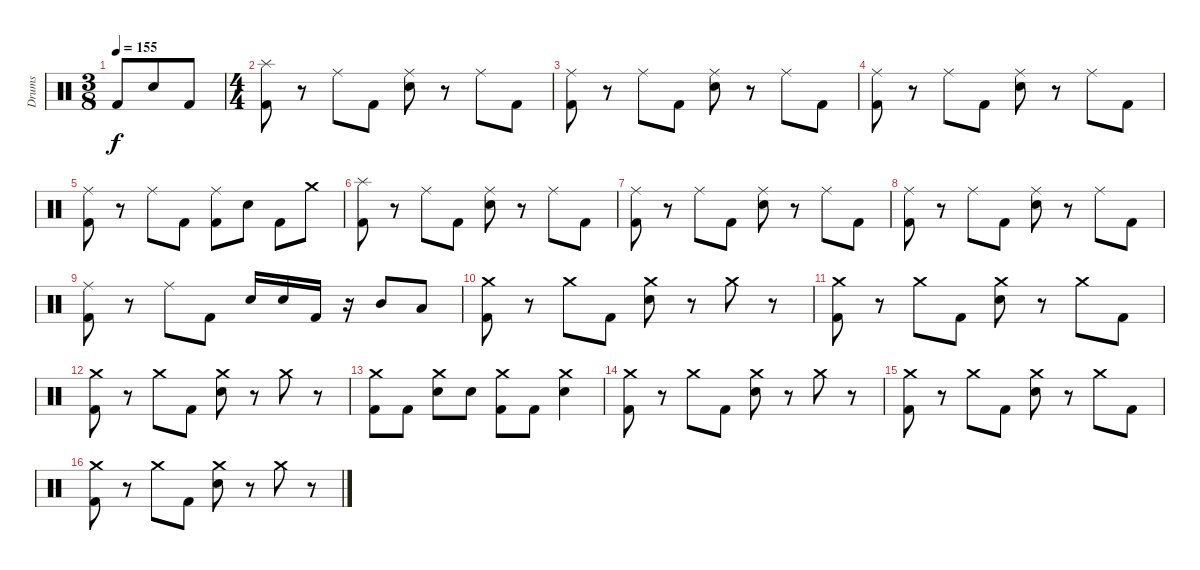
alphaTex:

\track ("Drums" "Drums") {instrument percussion}
\staff {score}
\articulation defaults
\ts (3 8)
\tempo 155
\clef neutral
\ks c "Kick (hit) 2".8{dy f} "Snare (hit) 2".8 "Kick (hit) 2".8
|
\ts (4 4)
("Splash (hit)" "Kick (hit) 2").8 r.8 "Ride (middle)".8 "Kick (hit) 2".8 ("Snare (hit) 2" "Ride (middle)").8 r.8 "Ride (middle)".8 "Kick (hit) 2".8 |
("Ride (middle)" "Kick (hit) 2").8 r.8 "Ride (middle)".8 "Kick (hit) 2".8 ("Snare (hit) 2" "Ride (middle)").8 r.8 "Ride (middle)".8 "Kick (hit) 2".8 |
("Ride (middle)" "Kick (hit) 2").8 r.8 "Ride (middle)".8 "Kick (hit) 2".8 ("Snare (hit) 2" "Ride (middle)").8 r.8 "Ride (middle)".8 "Kick (hit) 2".8 |
("Ride (middle)" "Kick (hit) 2").8 r.8 "Ride (middle)".8 "Kick (hit) 2".8 ("Ride (middle)" "Kick (hit) 2").8 "Snare (hit) 2".8 "Kick (hit) 2".8 "Crash medium (hit)".8 |
("Splash (hit)" "Kick (hit) 2").8 r.8 "Ride (middle)".8 "Kick (hit) 2".8 ("Snare (hit) 2" "Ride (middle)").8 r.8 "Ride (middle)".8 "Kick (hit) 2".8 |
("Ride (middle)" "Kick (hit) 2").8 r.8 "Ride (middle)".8 "Kick (hit) 2".8 ("Snare (hit) 2" "Ride (middle)").8 r.8 "Ride (middle)".8 "Kick (hit) 2".8 |
("Ride (middle)" "Kick (hit) 2").8 r.8 "Ride (middle)".8 "Kick (hit) 2".8 ("Snare (hit) 2" "Ride (middle)").8 r.8 "Ride (middle)".8 "Kick (hit) 2".8 |
("Ride (middle)" "Kick (hit) 2").8 r.8 "Ride (middle)".8 "Kick (hit) 2".8 "Snare (hit) 2".16 "Snare (hit) 2".16 "Kick (hit) 2".16 r.16 "Mid Tom (hit)".8 "Low Tom (hit)".8 |
("Crash medium (hit)" "Kick (hit) 2").8 r.8 "Crash medium (hit)".8 "Kick (hit) 2".8 ("Snare (hit) 2" "Crash medium (hit)").8 r.8 "Crash medium (hit)".8 r.8 |
("Crash medium (hit)" "Kick (hit) 2").8 r.8 "Crash medium (hit)".8 "Kick (hit) 2".8 ("Snare (hit) 2" "Crash medium (hit)").8 r.8 "Crash medium (hit)".8 "Kick (hit) 2".8 |
("Crash medium (hit)" "Kick (hit) 2").8 r.8 "Crash medium (hit)".8 "Kick (hit) 2".8 ("Snare (hit) 2" "Crash medium (hit)").8 r.8 "Crash medium (hit)".8 r.8 |
("Crash medium (hit)" "Kick (hit) 2").8 "Kick (hit) 2".8 ("Snare (hit) 2" "Crash medium (hit)").8 "Snare (hit) 2".8 ("Crash medium (hit)" "Kick (hit) 2").8 "Kick (hit) 2".8 ("Snare (hit) 2" "Crash medium (hit)").4 |
("Crash medium (hit)" "Kick (hit) 2").8 r.8 "Crash medium (hit)".8 "Kick (hit) 2".8 ("Snare (hit) 2" "Crash medium (hit)").8 r.8 "Crash medium (hit)".8 r.8 |
("Crash medium (hit)" "Kick (hit) 2").8 r.8 "Crash medium (hit)".8 "Kick (hit) 2".8 ("Snare (hit) 2" "Crash medium (hit)").8 r.8 "Crash medium (hit)".8 "Kick (hit) 2".8 |
("Crash medium (hit)" "Kick (hit) 2").8 r.8 "Crash medium (hit)".8 "Kick (hit) 2".8 ("Snare (hit) 2" "Crash medium (hit)").8 r.8 "Crash medium (hit)".8 r.8
